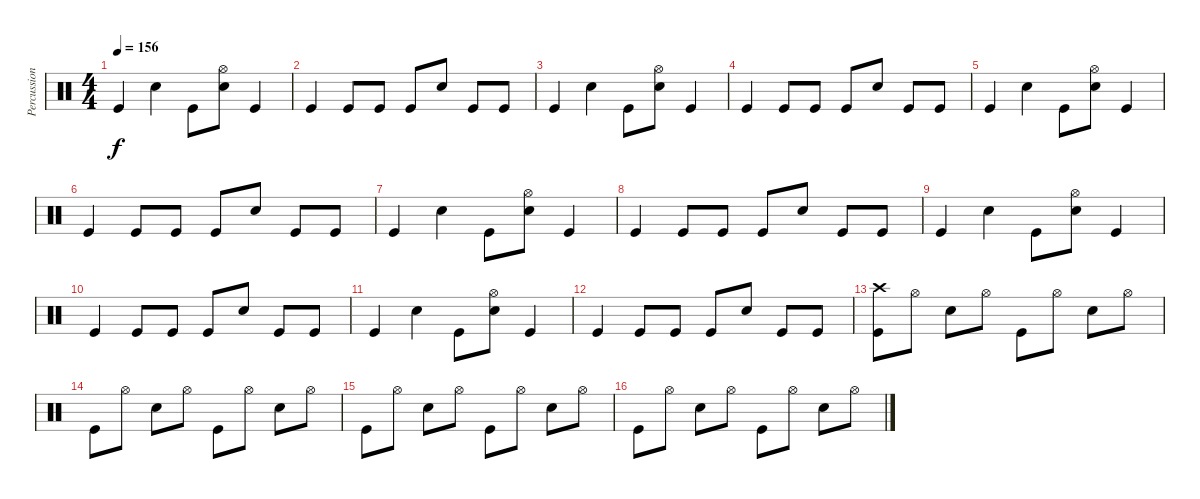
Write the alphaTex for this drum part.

\track ("Percussion" "Percussion") {instrument percussion}
\staff {score}
\articulation defaults
\ts (4 4)
\tempo 156
\clef neutral
\ks c "Kick (hit)".4{dy f} "Electric Snare (hit)".4 "Kick (hit)".8
("Hi-Hat (open)" "Electric Snare (hit)").8 "Kick (hit)".4 |
"Kick (hit)".4 "Kick (hit)".8 "Kick (hit)".8 "Kick (hit)".8 "Electric Snare (hit)".8 "Kick (hit)".8 "Kick (hit)".8 |
"Kick (hit)".4 "Electric Snare (hit)".4 "Kick (hit)".8 ("Hi-Hat (open)" "Electric Snare (hit)").8 "Kick (hit)".4 |
"Kick (hit)".4 "Kick (hit)".8 "Kick (hit)".8 "Kick (hit)".8 "Electric Snare (hit)".8 "Kick (hit)".8 "Kick (hit)".8 |
"Kick (hit)".4 "Electric Snare (hit)".4 "Kick (hit)".8 ("Hi-Hat (open)" "Electric Snare (hit)").8 "Kick (hit)".4 |
"Kick (hit)".4 "Kick (hit)".8 "Kick (hit)".8 "Kick (hit)".8 "Electric Snare (hit)".8 "Kick (hit)".8 "Kick (hit)".8 |
"Kick (hit)".4 "Electric Snare (hit)".4 "Kick (hit)".8 ("Hi-Hat (open)" "Electric Snare (hit)").8 "Kick (hit)".4 |
"Kick (hit)".4 "Kick (hit)".8 "Kick (hit)".8 "Kick (hit)".8 "Electric Snare (hit)".8 "Kick (hit)".8 "Kick (hit)".8 |
"Kick (hit)".4 "Electric Snare (hit)".4 "Kick (hit)".8 ("Hi-Hat (open)" "Electric Snare (hit)").8 "Kick (hit)".4 |
"Kick (hit)".4 "Kick (hit)".8 "Kick (hit)".8 "Kick (hit)".8 "Electric Snare (hit)".8 "Kick (hit)".8 "Kick (hit)".8 |
"Kick (hit)".4 "Electric Snare (hit)".4 "Kick (hit)".8 ("Hi-Hat (open)" "Electric Snare (hit)").8 "Kick (hit)".4 |
"Kick (hit)".4 "Kick (hit)".8 "Kick (hit)".8 "Kick (hit)".8 "Electric Snare (hit)".8 "Kick (hit)".8 "Kick (hit)".8 |
("Crash high (hit)" "Kick (hit)").8 "Hi-Hat (open)".8 "Electric Snare (hit)".8 "Hi-Hat (open)".8 "Kick (hit)".8 "Hi-Hat (open)".8 "Electric Snare (hit)".8 "Hi-Hat (open)".8 |
"Kick (hit)".8 "Hi-Hat (open)".8 "Electric Snare (hit)".8 "Hi-Hat (open)".8 "Kick (hit)".8 "Hi-Hat (open)".8 "Electric Snare (hit)".8 "Hi-Hat (open)".8 |
"Kick (hit)".8 "Hi-Hat (open)".8 "Electric Snare (hit)".8 "Hi-Hat (open)".8 "Kick (hit)".8 "Hi-Hat (open)".8 "Electric Snare (hit)".8 "Hi-Hat (open)".8 |
"Kick (hit)".8 "Hi-Hat (open)".8 "Electric Snare (hit)".8 "Hi-Hat (open)".8 "Kick (hit)".8 "Hi-Hat (open)".8 "Electric Snare (hit)".8 "Hi-Hat (open)".8
